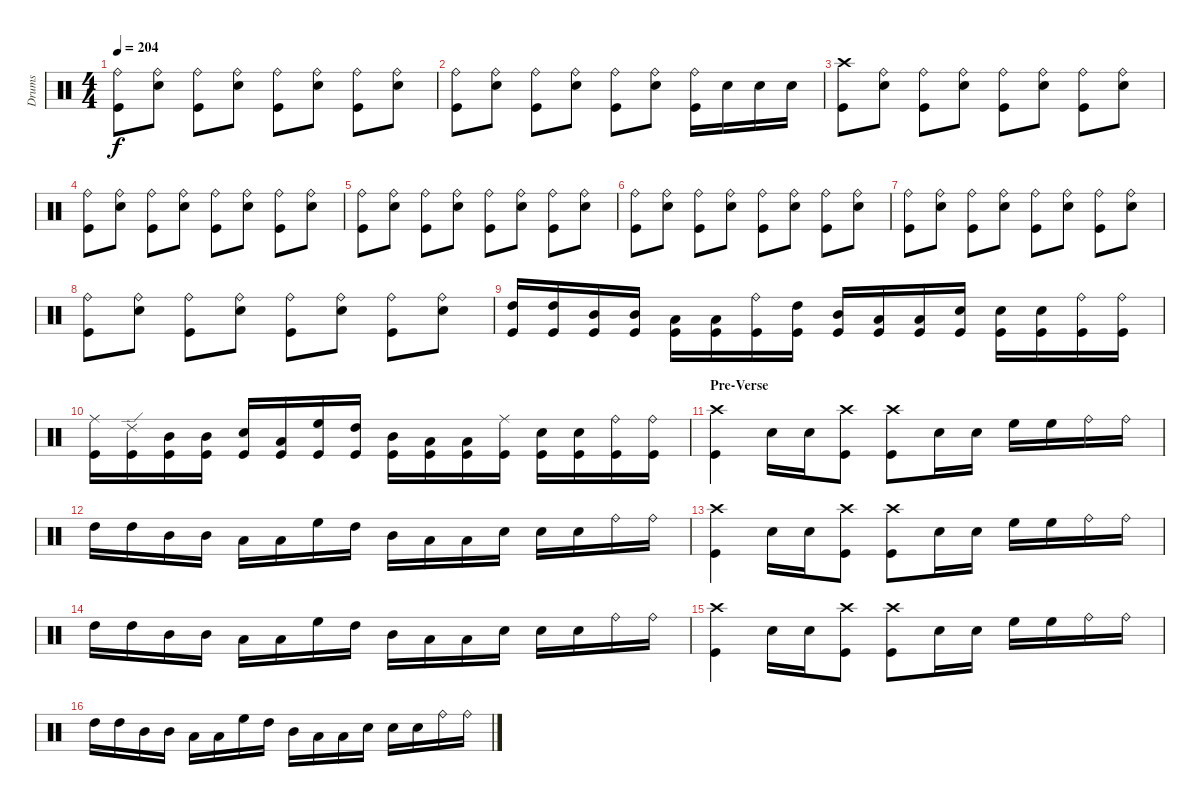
\track ("Drums" "Drums") {instrument percussion}
\staff {score}
\articulation defaults
\ts (4 4)
\tempo 204
\clef neutral
\ks c
("Ride (bell)" "Kick (hit)").8{dy f} ("Ride (bell)" "Electric Snare (hit)").8 ("Ride (bell)" "Kick (hit)").8 ("Ride (bell)" "Electric Snare (hit)").8 ("Ride (bell)" "Kick (hit)").8 ("Ride (bell)" "Electric Snare (hit)").8 ("Ride (bell)" "Kick (hit)").8 ("Ride (bell)" "Electric Snare (hit)").8 |
("Ride (bell)" "Kick (hit)").8 ("Ride (bell)" "Electric Snare (hit)").8 ("Ride (bell)" "Kick (hit)").8 ("Ride (bell)" "Electric Snare (hit)").8 ("Ride (bell)" "Kick (hit)").8 ("Ride (bell)" "Electric Snare (hit)").8 ("Ride (bell)" "Kick (hit)").16 "Electric Snare (hit)".16 "Electric Snare (hit)".16 "Electric Snare (hit)".16 |
("Crash high (hit)" "Kick (hit)").8 ("Ride (bell)" "Electric Snare (hit)").8 ("Ride (bell)" "Kick (hit)").8 ("Ride (bell)" "Electric Snare (hit)").8 ("Ride (bell)" "Kick (hit)").8 ("Ride (bell)" "Electric Snare (hit)").8 ("Ride (bell)" "Kick (hit)").8 ("Ride (bell)" "Electric Snare (hit)").8 |
("Ride (bell)" "Kick (hit)").8 ("Ride (bell)" "Electric Snare (hit)").8 ("Ride (bell)" "Kick (hit)").8 ("Ride (bell)" "Electric Snare (hit)").8 ("Ride (bell)" "Kick (hit)").8 ("Ride (bell)" "Electric Snare (hit)").8 ("Ride (bell)" "Kick (hit)").8 ("Ride (bell)" "Electric Snare (hit)").8 |
("Ride (bell)" "Kick (hit)").8 ("Ride (bell)" "Electric Snare (hit)").8 ("Ride (bell)" "Kick (hit)").8 ("Ride (bell)" "Electric Snare (hit)").8 ("Ride (bell)" "Kick (hit)").8 ("Ride (bell)" "Electric Snare (hit)").8 ("Ride (bell)" "Kick (hit)").8 ("Ride (bell)" "Electric Snare (hit)").8 |
("Ride (bell)" "Kick (hit)").8 ("Ride (bell)" "Electric Snare (hit)").8 ("Ride (bell)" "Kick (hit)").8 ("Ride (bell)" "Electric Snare (hit)").8 ("Ride (bell)" "Kick (hit)").8 ("Ride (bell)" "Electric Snare (hit)").8 ("Ride (bell)" "Kick (hit)").8 ("Ride (bell)" "Electric Snare (hit)").8 |
("Ride (bell)" "Kick (hit)").8 ("Ride (bell)" "Electric Snare (hit)").8 ("Ride (bell)" "Kick (hit)").8 ("Ride (bell)" "Electric Snare (hit)").8 ("Ride (bell)" "Kick (hit)").8 ("Ride (bell)" "Electric Snare (hit)").8 ("Ride (bell)" "Kick (hit)").8 ("Ride (bell)" "Electric Snare (hit)").8 |
("Ride (bell)" "Kick (hit)").8 ("Ride (bell)" "Electric Snare (hit)").8 ("Ride (bell)" "Kick (hit)").8 ("Ride (bell)" "Electric Snare (hit)").8 ("Ride (bell)" "Kick (hit)").8 ("Ride (bell)" "Electric Snare (hit)").8 ("Ride (bell)" "Kick (hit)").8 ("Ride (bell)" "Electric Snare (hit)").8 |
("High Tom (hit)" "Kick (hit)").16 ("High Tom (hit)" "Kick (hit)").16 ("Mid Tom (hit)" "Kick (hit)").16 ("Mid Tom (hit)" "Kick (hit)").16 ("Low Tom (hit)" "Kick (hit)").16 ("Low Tom (hit)" "Kick (hit)").16 ("Ride (bell)" "Kick (hit)").16 ("High Tom (hit)" "Kick (hit)").16 ("Mid Tom (hit)" "Kick (hit)").16 ("Low Tom (hit)" "Kick (hit)").16 ("Low Tom (hit)" "Kick (hit)").16 ("Electric Snare (hit)" "Kick (hit)").16 ("Electric Snare (hit)" "Kick (hit)").16 ("Electric Snare (hit)" "Kick (hit)").16 ("Ride (bell)" "Kick (hit)").16 ("Ride (bell)" "Kick (hit)").16 |
("Ride (middle)" "Kick (hit)").16 ("Ride (edge) 2" "Kick (hit)").16 ("Mid Tom (hit)" "Kick (hit)").16 ("Mid Tom (hit)" "Kick (hit)").16 ("Electric Snare (hit)" "Kick (hit)").16 ("Low Tom (hit)" "Kick (hit)").16 ("High Floor Tom (hit)" "Kick (hit)").16 ("High Tom (hit)" "Kick (hit)").16 ("Mid Tom (hit)" "Kick (hit)").16 ("Low Tom (hit)" "Kick (hit)").16 ("Low Tom (hit)" "Kick (hit)").16 ("Ride (middle)" "Kick (hit)").16 ("Electric Snare (hit)" "Kick (hit)").16 ("Electric Snare (hit)" "Kick (hit)").16 ("Ride (bell)" "Kick (hit)").16 ("Ride (bell)" "Kick (hit)").16 |
\section ("" "Pre-Verse")
("Crash high (hit)" "Kick (hit)").4 "Electric Snare (hit)".16 "Electric Snare (hit)".16 ("Crash high (hit)" "Kick (hit)").8 ("Crash high (hit)" "Kick (hit)").8 "Electric Snare (hit)".16 "Electric Snare (hit)".16 "High Floor Tom (hit)".16 "High Floor Tom (hit)".16 "Ride (bell)".16 "Ride (bell)".16 |
"High Tom (hit)".16 "High Tom (hit)".16 "Mid Tom (hit)".16 "Mid Tom (hit)".16 "Low Tom (hit)".16 "Low Tom (hit)".16 "High Floor Tom (hit)".16 "High Tom (hit)".16 "Mid Tom (hit)".16 "Low Tom (hit)".16 "Low Tom (hit)".16 "Electric Snare (hit)".16 "Electric Snare (hit)".16 "Electric Snare (hit)".16 "Ride (bell)".16 "Ride (bell)".16 |
("Crash high (hit)" "Kick (hit)").4 "Electric Snare (hit)".16 "Electric Snare (hit)".16 ("Crash high (hit)" "Kick (hit)").8 ("Crash high (hit)" "Kick (hit)").8 "Electric Snare (hit)".16 "Electric Snare (hit)".16 "High Floor Tom (hit)".16 "High Floor Tom (hit)".16 "Ride (bell)".16 "Ride (bell)".16 |
"High Tom (hit)".16 "High Tom (hit)".16 "Mid Tom (hit)".16 "Mid Tom (hit)".16 "Low Tom (hit)".16 "Low Tom (hit)".16 "High Floor Tom (hit)".16 "High Tom (hit)".16 "Mid Tom (hit)".16 "Low Tom (hit)".16 "Low Tom (hit)".16 "Electric Snare (hit)".16 "Electric Snare (hit)".16 "Electric Snare (hit)".16 "Ride (bell)".16 "Ride (bell)".16 |
("Crash high (hit)" "Kick (hit)").4 "Electric Snare (hit)".16 "Electric Snare (hit)".16 ("Crash high (hit)" "Kick (hit)").8 ("Crash high (hit)" "Kick (hit)").8 "Electric Snare (hit)".16 "Electric Snare (hit)".16 "High Floor Tom (hit)".16 "High Floor Tom (hit)".16 "Ride (bell)".16 "Ride (bell)".16 |
"High Tom (hit)".16 "High Tom (hit)".16 "Mid Tom (hit)".16 "Mid Tom (hit)".16 "Low Tom (hit)".16 "Low Tom (hit)".16 "High Floor Tom (hit)".16 "High Tom (hit)".16 "Mid Tom (hit)".16 "Low Tom (hit)".16 "Low Tom (hit)".16 "Electric Snare (hit)".16 "Electric Snare (hit)".16 "Electric Snare (hit)".16 "Ride (bell)".16 "Ride (bell)".16
